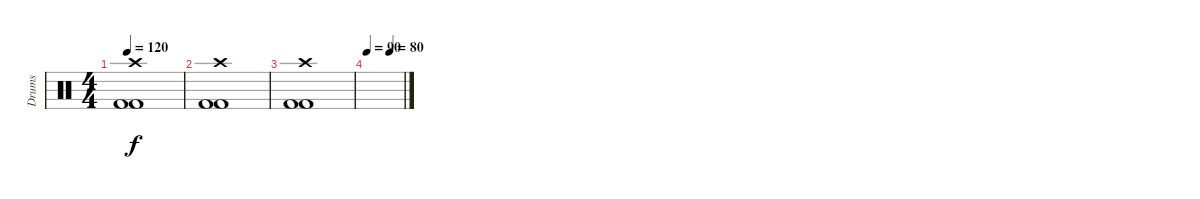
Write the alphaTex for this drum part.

\track ("Drums" "Drums") {instrument percussion}
\staff {score}
\articulation defaults
\ts (4 4)
\tempo 120
\clef neutral
\ks c
("Crash high (hit)" "Kick (hit) 2" "Kick (hit) 2").1{dy f} |
("Crash high (hit)" "Kick (hit) 2" "Kick (hit) 2").1 |
("Crash high (hit)" "Kick (hit) 2" "Kick (hit) 2").1 |
\tempo 90
\tempo (80 0.625)
